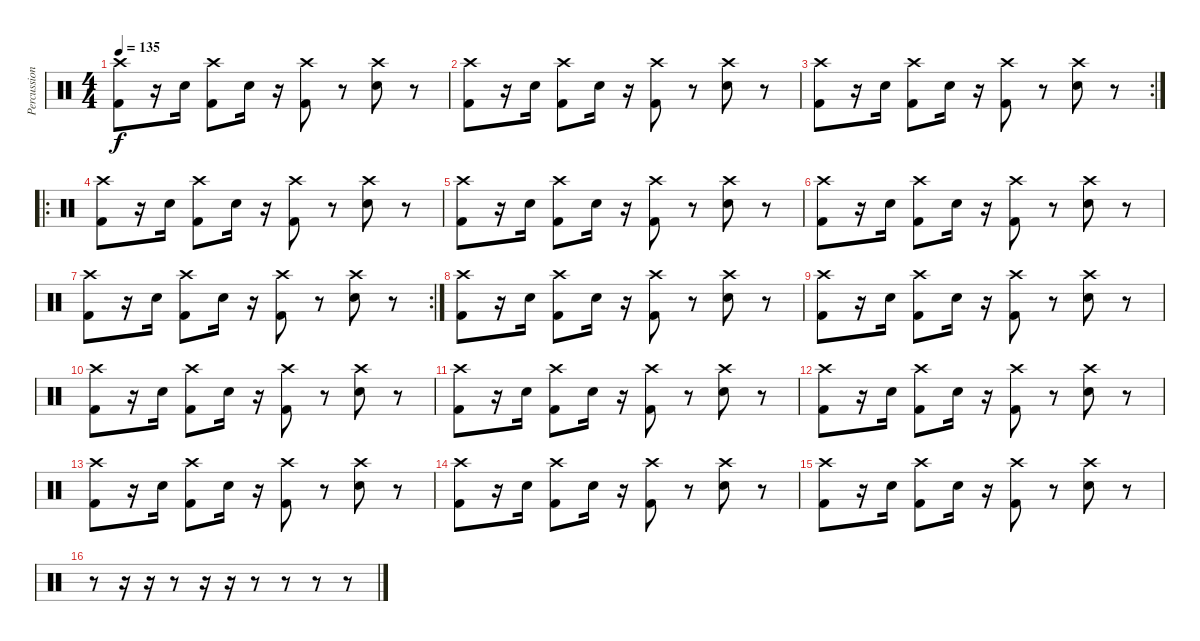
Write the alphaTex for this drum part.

\track ("Percussions" "Percussion") {instrument percussion}
\staff {score}
\articulation defaults
\ts (4 4)
\tempo 135
\clef neutral
\ks c
("Crash high (hit)" "Kick (hit) 2").8{dy f} r.16 "Snare (hit) 2".16 ("Crash high (hit)" "Kick (hit) 2").8 "Snare (hit) 2".16 r.16 ("Crash high (hit)" "Kick (hit) 2").8 r.8 ("Crash high (hit)" "Snare (hit) 2").8 r.8 |
("Crash high (hit)" "Kick (hit) 2").8 r.16 "Snare (hit) 2".16 ("Crash high (hit)" "Kick (hit) 2").8 "Snare (hit) 2".16 r.16 ("Crash high (hit)" "Kick (hit) 2").8 r.8 ("Crash high (hit)" "Snare (hit) 2").8 r.8 |
\rc 2
("Crash high (hit)" "Kick (hit) 2").8 r.16 "Snare (hit) 2".16 ("Crash high (hit)" "Kick (hit) 2").8 "Snare (hit) 2".16 r.16 ("Crash high (hit)" "Kick (hit) 2").8 r.8 ("Crash high (hit)" "Snare (hit) 2").8 r.8 |
\ro
("Crash high (hit)" "Kick (hit) 2").8 r.16 "Snare (hit) 2".16 ("Crash high (hit)" "Kick (hit) 2").8 "Snare (hit) 2".16 r.16 ("Crash high (hit)" "Kick (hit) 2").8 r.8 ("Crash high (hit)" "Snare (hit) 2").8 r.8 |
("Crash high (hit)" "Kick (hit) 2").8 r.16 "Snare (hit) 2".16 ("Crash high (hit)" "Kick (hit) 2").8 "Snare (hit) 2".16 r.16 ("Crash high (hit)" "Kick (hit) 2").8 r.8 ("Crash high (hit)" "Snare (hit) 2").8 r.8 |
("Crash high (hit)" "Kick (hit) 2").8 r.16 "Snare (hit) 2".16 ("Crash high (hit)" "Kick (hit) 2").8 "Snare (hit) 2".16 r.16 ("Crash high (hit)" "Kick (hit) 2").8 r.8 ("Crash high (hit)" "Snare (hit) 2").8 r.8 |
\rc 2
("Crash high (hit)" "Kick (hit) 2").8 r.16 "Snare (hit) 2".16 ("Crash high (hit)" "Kick (hit) 2").8 "Snare (hit) 2".16 r.16 ("Crash high (hit)" "Kick (hit) 2").8 r.8 ("Crash high (hit)" "Snare (hit) 2").8 r.8 |
("Crash high (hit)" "Kick (hit) 2").8 r.16 "Snare (hit) 2".16 ("Crash high (hit)" "Kick (hit) 2").8 "Snare (hit) 2".16 r.16 ("Crash high (hit)" "Kick (hit) 2").8 r.8 ("Crash high (hit)" "Snare (hit) 2").8 r.8 |
("Crash high (hit)" "Kick (hit) 2").8 r.16 "Snare (hit) 2".16 ("Crash high (hit)" "Kick (hit) 2").8 "Snare (hit) 2".16 r.16 ("Crash high (hit)" "Kick (hit) 2").8 r.8 ("Crash high (hit)" "Snare (hit) 2").8 r.8 |
("Crash high (hit)" "Kick (hit) 2").8 r.16 "Snare (hit) 2".16 ("Crash high (hit)" "Kick (hit) 2").8 "Snare (hit) 2".16 r.16 ("Crash high (hit)" "Kick (hit) 2").8 r.8 ("Crash high (hit)" "Snare (hit) 2").8 r.8 |
("Crash high (hit)" "Kick (hit) 2").8 r.16 "Snare (hit) 2".16 ("Crash high (hit)" "Kick (hit) 2").8 "Snare (hit) 2".16 r.16 ("Crash high (hit)" "Kick (hit) 2").8 r.8 ("Crash high (hit)" "Snare (hit) 2").8 r.8 |
("Crash high (hit)" "Kick (hit) 2").8 r.16 "Snare (hit) 2".16 ("Crash high (hit)" "Kick (hit) 2").8 "Snare (hit) 2".16 r.16 ("Crash high (hit)" "Kick (hit) 2").8 r.8 ("Crash high (hit)" "Snare (hit) 2").8 r.8 |
("Crash high (hit)" "Kick (hit) 2").8 r.16 "Snare (hit) 2".16 ("Crash high (hit)" "Kick (hit) 2").8 "Snare (hit) 2".16 r.16 ("Crash high (hit)" "Kick (hit) 2").8 r.8 ("Crash high (hit)" "Snare (hit) 2").8 r.8 |
("Crash high (hit)" "Kick (hit) 2").8 r.16 "Snare (hit) 2".16 ("Crash high (hit)" "Kick (hit) 2").8 "Snare (hit) 2".16 r.16 ("Crash high (hit)" "Kick (hit) 2").8 r.8 ("Crash high (hit)" "Snare (hit) 2").8 r.8 |
("Crash high (hit)" "Kick (hit) 2").8 r.16 "Snare (hit) 2".16 ("Crash high (hit)" "Kick (hit) 2").8 "Snare (hit) 2".16 r.16 ("Crash high (hit)" "Kick (hit) 2").8 r.8 ("Crash high (hit)" "Snare (hit) 2").8 r.8 |
r.8 r.16 r.16 r.8 r.16 r.16 r.8 r.8 r.8 r.8
